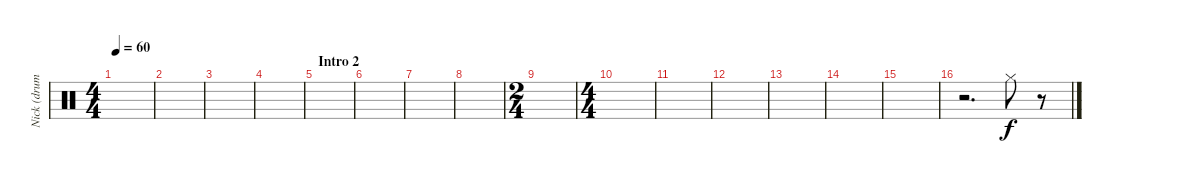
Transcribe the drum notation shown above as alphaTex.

\track ("Nick (drums)" "Nick (drum") {instrument percussion}
\staff {score}
\articulation defaults
\ts (4 4)
\tempo 60
\clef neutral
\ks c
|
|
|
|
\section ("" "Intro 2")
|
|
|
|
\ts (2 4)
|
\ts (4 4)
|
|
|
|
|
|
r.2{d} "Hi-Hat (closed)".8 r.8
